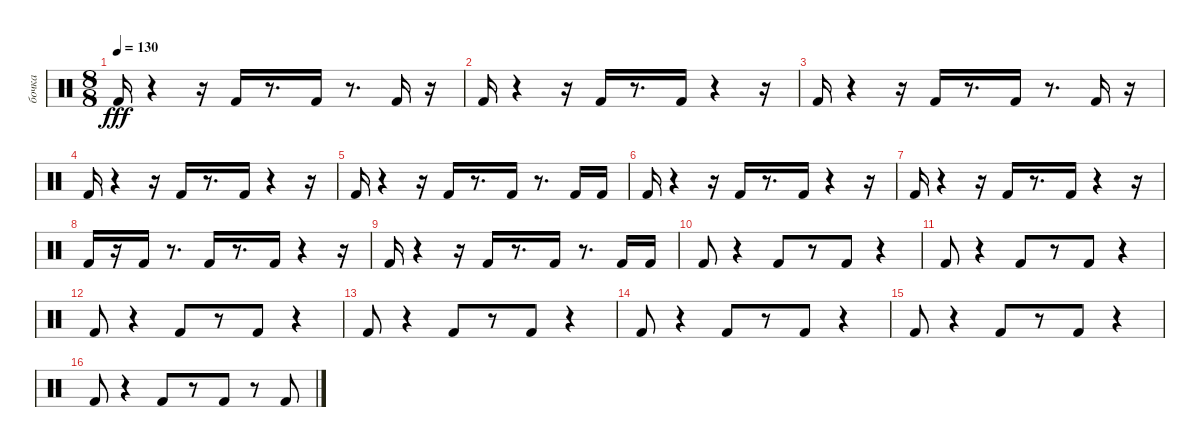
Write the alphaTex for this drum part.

\track ("бочка" "бочка") {instrument percussion}
\staff {score}
\articulation defaults
\ts (8 8)
\tempo 130
\clef neutral
\ks c "Kick (hit) 2".16{dy fff}
r.4 r.16 "Kick (hit) 2".16 r.8{d} "Kick (hit) 2".16 r.8{d} "Kick (hit) 2".16 r.16 |
"Kick (hit) 2".16 r.4 r.16 "Kick (hit) 2".16 r.8{d} "Kick (hit) 2".16 r.4 r.16 |
"Kick (hit) 2".16 r.4 r.16 "Kick (hit) 2".16 r.8{d} "Kick (hit) 2".16 r.8{d} "Kick (hit) 2".16 r.16 |
"Kick (hit) 2".16 r.4 r.16 "Kick (hit) 2".16 r.8{d} "Kick (hit) 2".16 r.4 r.16 |
"Kick (hit) 2".16 r.4 r.16 "Kick (hit) 2".16 r.8{d} "Kick (hit) 2".16 r.8{d} "Kick (hit) 2".16 "Kick (hit) 2".16 |
"Kick (hit) 2".16 r.4 r.16 "Kick (hit) 2".16 r.8{d} "Kick (hit) 2".16 r.4 r.16 |
"Kick (hit) 2".16 r.4 r.16 "Kick (hit) 2".16 r.8{d} "Kick (hit) 2".16 r.4 r.16 |
"Kick (hit) 2".16 r.16 "Kick (hit) 2".16 r.8{d} "Kick (hit) 2".16 r.8{d} "Kick (hit) 2".16 r.4 r.16 |
"Kick (hit) 2".16 r.4 r.16 "Kick (hit) 2".16 r.8{d} "Kick (hit) 2".16 r.8{d} "Kick (hit) 2".16 "Kick (hit) 2".16 |
"Kick (hit) 2".8 r.4 "Kick (hit) 2".8 r.8 "Kick (hit) 2".8 r.4 |
"Kick (hit) 2".8 r.4 "Kick (hit) 2".8 r.8 "Kick (hit) 2".8 r.4 |
"Kick (hit) 2".8 r.4 "Kick (hit) 2".8 r.8 "Kick (hit) 2".8 r.4 |
"Kick (hit) 2".8 r.4 "Kick (hit) 2".8 r.8 "Kick (hit) 2".8 r.4 |
"Kick (hit) 2".8 r.4 "Kick (hit) 2".8 r.8 "Kick (hit) 2".8 r.4 |
"Kick (hit) 2".8 r.4 "Kick (hit) 2".8 r.8 "Kick (hit) 2".8 r.4 |
"Kick (hit) 2".8 r.4 "Kick (hit) 2".8 r.8 "Kick (hit) 2".8 r.8 "Kick (hit) 2".8
